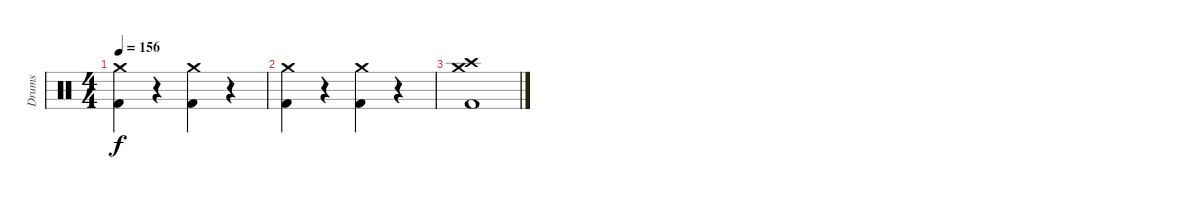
\track ("Drums" "Drums") {instrument percussion}
\staff {score}
\articulation defaults
\ts (4 4)
\tempo 156
\clef neutral
\ks c
("Crash medium (hit)" "Kick (hit) 2").4{dy f} r.4 ("Crash medium (hit)" "Kick (hit) 2").4 r.4 |
("Crash medium (hit)" "Kick (hit) 2").4 r.4 ("Crash medium (hit)" "Kick (hit) 2").4 r.4 |
("Crash medium (hit)" "Crash high (hit)" "Kick (hit) 2").1
